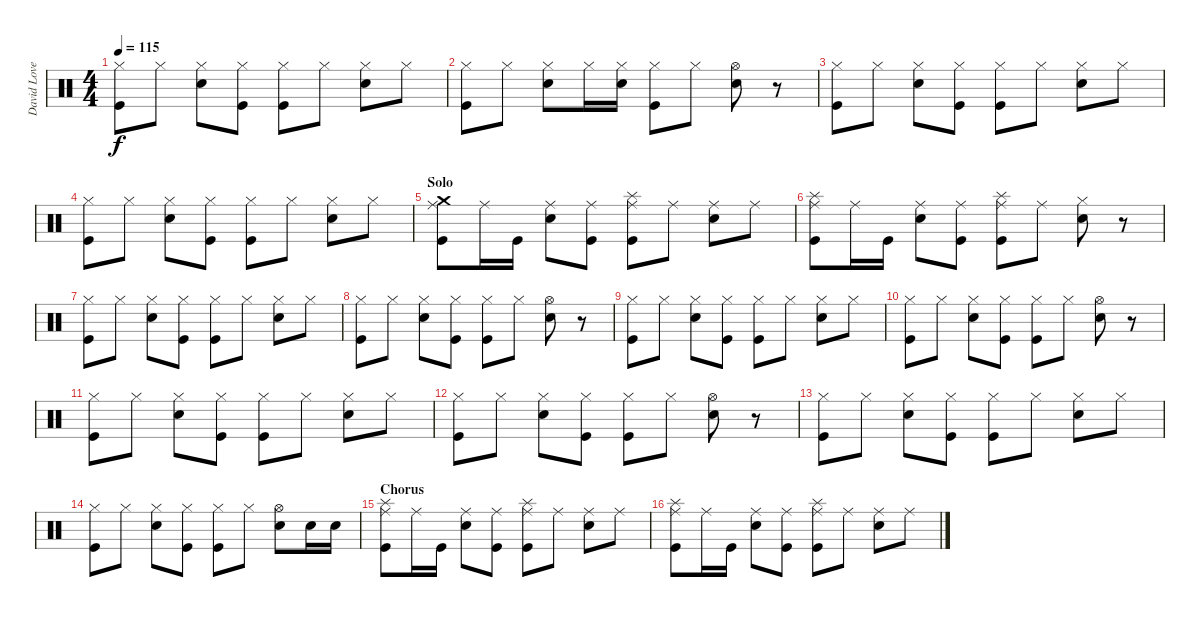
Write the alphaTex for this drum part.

\track ("David Lovering" "David Love") {instrument percussion}
\staff {score}
\articulation defaults
\ts (4 4)
\tempo 115
\clef neutral
\ks c
("Hi-Hat (closed)" "Kick (hit)").8{dy f} "Hi-Hat (closed)".8 ("Hi-Hat (closed)" "Snare (hit) 2").8 ("Hi-Hat (closed)" "Kick (hit)").8 ("Hi-Hat (closed)" "Kick (hit)").8 "Hi-Hat (closed)".8 ("Hi-Hat (closed)" "Snare (hit) 2").8 "Hi-Hat (closed)".8 |
("Hi-Hat (closed)" "Kick (hit)").8 "Hi-Hat (closed)".8 ("Hi-Hat (closed)" "Snare (hit) 2").8 "Hi-Hat (closed)".16 ("Hi-Hat (closed)" "Snare (hit) 2").16 ("Hi-Hat (closed)" "Kick (hit)").8 "Hi-Hat (closed)".8 ("Hi-Hat (open)" "Snare (hit) 2").8 r.8 |
("Hi-Hat (closed)" "Kick (hit)").8 "Hi-Hat (closed)".8 ("Hi-Hat (closed)" "Snare (hit) 2").8 ("Hi-Hat (closed)" "Kick (hit)").8 ("Hi-Hat (closed)" "Kick (hit)").8 "Hi-Hat (closed)".8 ("Hi-Hat (closed)" "Snare (hit) 2").8 "Hi-Hat (closed)".8 |
("Hi-Hat (closed)" "Kick (hit)").8 "Hi-Hat (closed)".8 ("Hi-Hat (closed)" "Snare (hit) 2").8 ("Hi-Hat (closed)" "Kick (hit)").8 ("Hi-Hat (closed)" "Kick (hit)").8 "Hi-Hat (closed)".8 ("Hi-Hat (closed)" "Snare (hit) 2").8 "Hi-Hat (closed)".8 |
\section ("" "Solo")
("Ride (middle)" "Crash medium (hit)" "Kick (hit)").8 "Ride (middle)".16 "Kick (hit)".16 ("Ride (middle)" "Snare (hit) 2").8 ("Ride (middle)" "Kick (hit)").8 ("Ride (middle)" "Splash (hit)" "Kick (hit)").8 "Ride (middle)".8 ("Ride (middle)" "Snare (hit) 2").8 "Ride (middle)".8 |
("Ride (middle)" "Splash (hit)" "Kick (hit)").8 "Ride (middle)".16 "Kick (hit)".16 ("Ride (middle)" "Snare (hit) 2").8 ("Ride (middle)" "Kick (hit)").8 ("Ride (middle)" "Splash (hit)" "Kick (hit)").8 "Ride (middle)".8 ("Hi-Hat (closed)" "Snare (hit) 2").8 r.8 |
\section ("" "")
("Hi-Hat (closed)" "Kick (hit)").8 "Hi-Hat (closed)".8 ("Hi-Hat (closed)" "Snare (hit) 2").8 ("Hi-Hat (closed)" "Kick (hit)").8 ("Hi-Hat (closed)" "Kick (hit)").8 "Hi-Hat (closed)".8 ("Hi-Hat (closed)" "Snare (hit) 2").8 "Hi-Hat (closed)".8 |
("Hi-Hat (closed)" "Kick (hit)").8 "Hi-Hat (closed)".8 ("Hi-Hat (closed)" "Snare (hit) 2").8 ("Hi-Hat (closed)" "Kick (hit)").8 ("Hi-Hat (closed)" "Kick (hit)").8 "Hi-Hat (closed)".8 ("Hi-Hat (open)" "Snare (hit) 2").8 r.8 |
("Hi-Hat (closed)" "Kick (hit)").8 "Hi-Hat (closed)".8 ("Hi-Hat (closed)" "Snare (hit) 2").8 ("Hi-Hat (closed)" "Kick (hit)").8 ("Hi-Hat (closed)" "Kick (hit)").8 "Hi-Hat (closed)".8 ("Hi-Hat (closed)" "Snare (hit) 2").8 "Hi-Hat (closed)".8 |
("Hi-Hat (closed)" "Kick (hit)").8 "Hi-Hat (closed)".8 ("Hi-Hat (closed)" "Snare (hit) 2").8 ("Hi-Hat (closed)" "Kick (hit)").8 ("Hi-Hat (closed)" "Kick (hit)").8 "Hi-Hat (closed)".8 ("Hi-Hat (open)" "Snare (hit) 2").8 r.8 |
("Hi-Hat (closed)" "Kick (hit)").8 "Hi-Hat (closed)".8 ("Hi-Hat (closed)" "Snare (hit) 2").8 ("Hi-Hat (closed)" "Kick (hit)").8 ("Hi-Hat (closed)" "Kick (hit)").8 "Hi-Hat (closed)".8 ("Hi-Hat (closed)" "Snare (hit) 2").8 "Hi-Hat (closed)".8 |
("Hi-Hat (closed)" "Kick (hit)").8 "Hi-Hat (closed)".8 ("Hi-Hat (closed)" "Snare (hit) 2").8 ("Hi-Hat (closed)" "Kick (hit)").8 ("Hi-Hat (closed)" "Kick (hit)").8 "Hi-Hat (closed)".8 ("Hi-Hat (open)" "Snare (hit) 2").8 r.8 |
("Hi-Hat (closed)" "Kick (hit)").8 "Hi-Hat (closed)".8 ("Hi-Hat (closed)" "Snare (hit) 2").8 ("Hi-Hat (closed)" "Kick (hit)").8 ("Hi-Hat (closed)" "Kick (hit)").8 "Hi-Hat (closed)".8 ("Hi-Hat (closed)" "Snare (hit) 2").8 "Hi-Hat (closed)".8 |
("Hi-Hat (closed)" "Kick (hit)").8 "Hi-Hat (closed)".8 ("Hi-Hat (closed)" "Snare (hit) 2").8 ("Hi-Hat (closed)" "Kick (hit)").8 ("Hi-Hat (closed)" "Kick (hit)").8 "Hi-Hat (closed)".8 ("Hi-Hat (open)" "Snare (hit) 2").8 "Snare (hit) 2".16 "Snare (hit) 2".16 |
\section ("" "Chorus")
("Ride (middle)" "Splash (hit)" "Kick (hit)").8 "Ride (middle)".16 "Kick (hit)".16 ("Ride (middle)" "Snare (hit) 2").8 ("Ride (middle)" "Kick (hit)").8 ("Ride (middle)" "Splash (hit)" "Kick (hit)").8 "Ride (middle)".8 ("Ride (middle)" "Snare (hit) 2").8 "Ride (middle)".8 |
("Ride (middle)" "Splash (hit)" "Kick (hit)").8 "Ride (middle)".16 "Kick (hit)".16 ("Ride (middle)" "Snare (hit) 2").8 ("Ride (middle)" "Kick (hit)").8 ("Ride (middle)" "Splash (hit)" "Kick (hit)").8 "Ride (middle)".8 ("Ride (middle)" "Snare (hit) 2").8 "Ride (middle)".8
